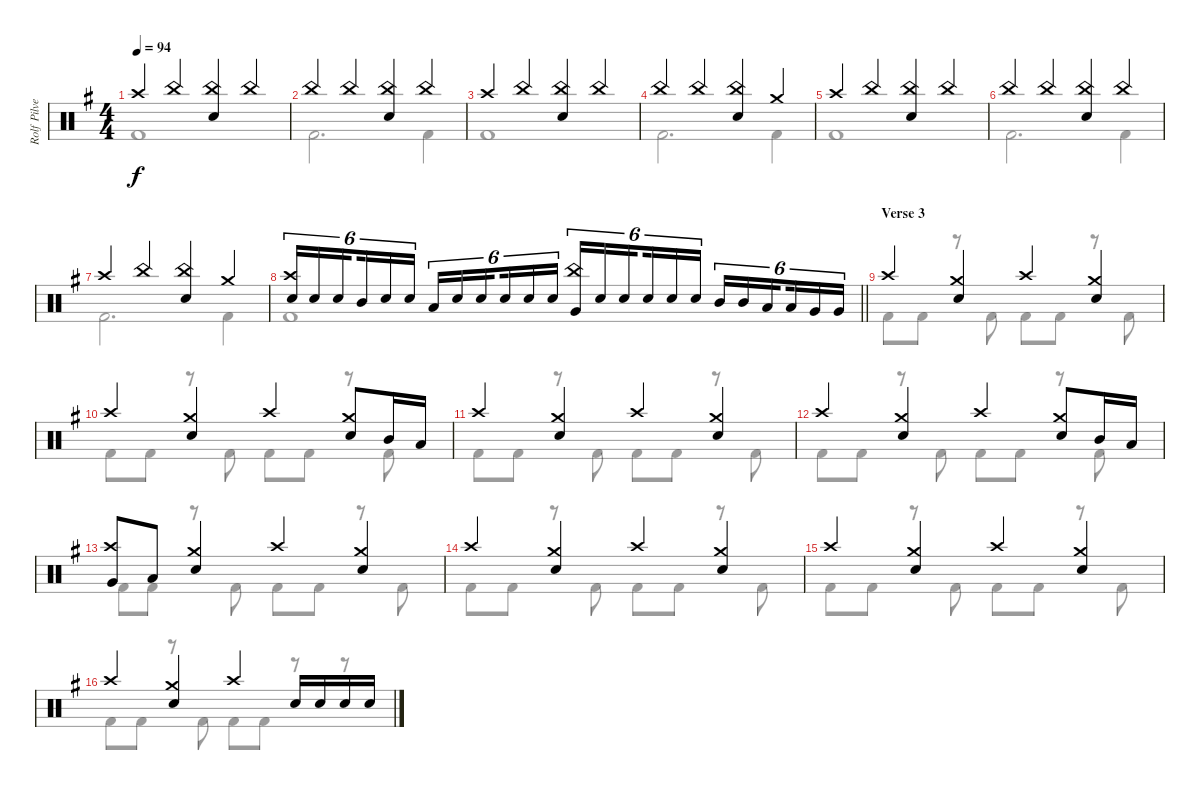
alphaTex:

\track ("Rolf Pilve - drums" "Rolf Pilve") {instrument percussion}
\staff {score}
\articulation defaults
\voice
\ts (4 4)
\tempo 94
\clef neutral
\ks eminor "Crash high (hit)".4{dy f} "China (hit)".4
("China (hit)" "Snare (hit) 2").4 "China (hit)".4 |
"China (hit)".4 "China (hit)".4 ("China (hit)" "Snare (hit) 2").4 "China (hit)".4 |
"Crash high (hit)".4 "China (hit)".4 ("China (hit)" "Snare (hit) 2").4 "China (hit)".4 |
"China (hit)".4 "China (hit)".4 ("China (hit)" "Snare (hit) 2").4 "Crash medium (hit)".4 |
"Crash high (hit)".4 "China (hit)".4 ("China (hit)" "Snare (hit) 2").4 "China (hit)".4 |
"China (hit)".4 "China (hit)".4 ("China (hit)" "Snare (hit) 2").4 "China (hit)".4 |
"Crash high (hit)".4 "China (hit)".4 ("China (hit)" "Snare (hit) 2").4 "Crash medium (hit)".4 |
\barLineRight lightlight
("Snare (hit) 2" "Crash high (hit)").16{tu (6 4)} "Snare (hit) 2".16{tu (6 4)} "Snare (hit) 2".16{tu (6 4) beam splitsecondary} "Mid Tom (hit)".16{tu (6 4)} "Snare (hit) 2".16{tu (6 4)} "Snare (hit) 2".16{tu (6 4)} "Low Tom (hit)".16{tu (6 4)} "Snare (hit) 2".16{tu (6 4)} "Snare (hit) 2".16{tu (6 4) beam splitsecondary} "Snare (hit) 2".16{tu (6 4)} "Snare (hit) 2".16{tu (6 4)} "Snare (hit) 2".16{tu (6 4)} ("Very Low Tom (hit)" "China (hit)").16{tu (6 4)} "Snare (hit) 2".16{tu (6 4)} "Snare (hit) 2".16{tu (6 4) beam splitsecondary} "Snare (hit) 2".16{tu (6 4)} "Snare (hit) 2".16{tu (6 4)} "Snare (hit) 2".16{tu (6 4)} "Mid Tom (hit)".16{tu (6 4)} "Mid Tom (hit)".16{tu (6 4)} "Low Tom (hit)".16{tu (6 4) beam splitsecondary} "Low Tom (hit)".16{tu (6 4)} "Very Low Tom (hit)".16{tu (6 4)} "Very Low Tom (hit)".16{tu (6 4)} |
\section ("" "Verse 3")
"Crash high (hit)".4 ("Snare (hit) 2" "Crash medium (hit)").4 "Crash high (hit)".4 ("Crash medium (hit)" "Snare (hit) 2").4 |
"Crash high (hit)".4 ("Snare (hit) 2" "Crash medium (hit)").4 "Crash high (hit)".4 ("Crash medium (hit)" "Snare (hit) 2").8 "Mid Tom (hit)".16 "Low Tom (hit)".16 |
"Crash high (hit)".4 ("Snare (hit) 2" "Crash medium (hit)").4 "Crash high (hit)".4 ("Crash medium (hit)" "Snare (hit) 2").4 |
"Crash high (hit)".4 ("Snare (hit) 2" "Crash medium (hit)").4 "Crash high (hit)".4 ("Crash medium (hit)" "Snare (hit) 2").8 "Mid Tom (hit)".16 "Low Tom (hit)".16 |
("Crash high (hit)" "Very Low Tom (hit)").8 "Low Tom (hit)".8 ("Snare (hit) 2" "Crash medium (hit)").4 "Crash high (hit)".4 ("Crash medium (hit)" "Snare (hit) 2").4 |
"Crash high (hit)".4 ("Snare (hit) 2" "Crash medium (hit)").4 "Crash high (hit)".4 ("Crash medium (hit)" "Snare (hit) 2").4 |
"Crash high (hit)".4 ("Snare (hit) 2" "Crash medium (hit)").4 "Crash high (hit)".4 ("Crash medium (hit)" "Snare (hit) 2").4 |
"Crash high (hit)".4 ("Snare (hit) 2" "Crash medium (hit)").4 "Crash high (hit)".4 "Snare (hit) 2".16 "Snare (hit) 2".16 "Snare (hit) 2".16 "Snare (hit) 2".16
\voice
\clef neutral
\ottava regular
\simile none
\ks eminor "Kick (hit) 2".1{dy f}
|
"Kick (hit) 2".2{d} "Kick (hit) 2".4 |
"Kick (hit) 2".1 |
"Kick (hit) 2".2{d} "Kick (hit) 2".4 |
"Kick (hit) 2".1 |
"Kick (hit) 2".2{d} "Kick (hit) 2".4 |
"Kick (hit) 2".2{d} "Kick (hit) 2".4 |
\barLineRight lightlight "Kick (hit) 2".1
|
"Kick (hit) 2".8 "Kick (hit) 2".8 r.8 "Kick (hit) 2".8 "Kick (hit) 2".8 "Kick (hit) 2".8 r.8 "Kick (hit) 2".8 |
"Kick (hit) 2".8 "Kick (hit) 2".8 r.8 "Kick (hit) 2".8 "Kick (hit) 2".8 "Kick (hit) 2".8 r.8 "Kick (hit) 2".8 |
"Kick (hit) 2".8 "Kick (hit) 2".8 r.8 "Kick (hit) 2".8 "Kick (hit) 2".8 "Kick (hit) 2".8 r.8 "Kick (hit) 2".8 |
"Kick (hit) 2".8 "Kick (hit) 2".8 r.8 "Kick (hit) 2".8 "Kick (hit) 2".8 "Kick (hit) 2".8 r.8 "Kick (hit) 2".8 |
"Kick (hit) 2".8 "Kick (hit) 2".8 r.8 "Kick (hit) 2".8 "Kick (hit) 2".8 "Kick (hit) 2".8 r.8 "Kick (hit) 2".8 |
"Kick (hit) 2".8 "Kick (hit) 2".8 r.8 "Kick (hit) 2".8 "Kick (hit) 2".8 "Kick (hit) 2".8 r.8 "Kick (hit) 2".8 |
"Kick (hit) 2".8 "Kick (hit) 2".8 r.8 "Kick (hit) 2".8 "Kick (hit) 2".8 "Kick (hit) 2".8 r.8 "Kick (hit) 2".8 |
"Kick (hit) 2".8 "Kick (hit) 2".8 r.8 "Kick (hit) 2".8 "Kick (hit) 2".8 "Kick (hit) 2".8 r.8 r.8
